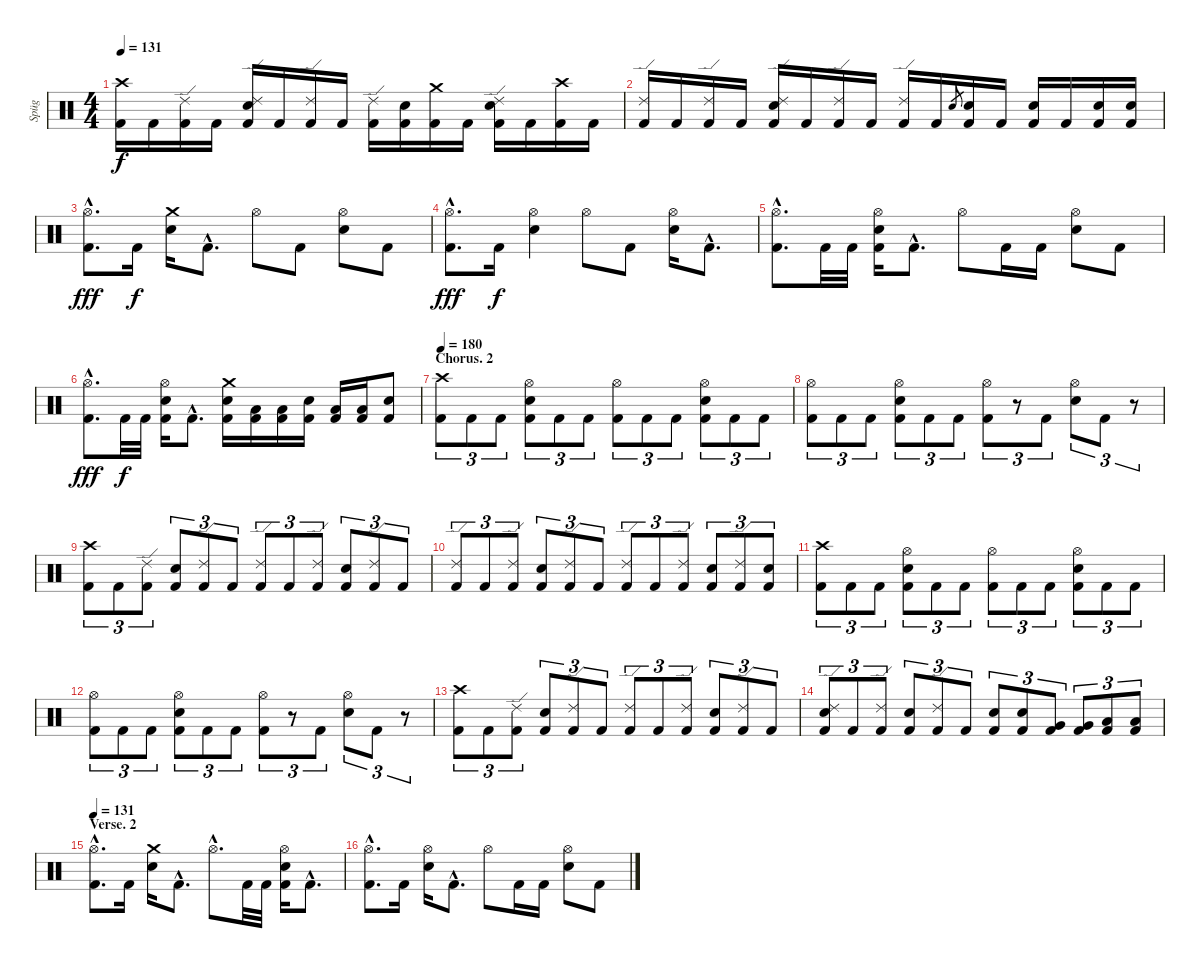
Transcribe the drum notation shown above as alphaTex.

\track ("Spüg" "Spüg") {instrument percussion}
\staff {score}
\articulation defaults
\ts (4 4)
\tempo 131
\clef neutral
\ks c
("Crash high (hit)" "Kick (hit) 2").16{dy f} "Kick (hit) 2".16 ("Ride (edge) 2" "Kick (hit) 2").16 "Kick (hit) 2".16 ("Ride (edge) 2" "Electric Snare (hit)" "Kick (hit) 2").16 "Kick (hit) 2".16 ("Ride (edge) 2" "Kick (hit) 2").16 "Kick (hit) 2".16 ("Ride (edge) 2" "Kick (hit) 2").16 ("Electric Snare (hit)" "Kick (hit) 2").16 ("Crash medium (hit)" "Kick (hit) 2").16 "Kick (hit) 2".16 ("Ride (edge) 2" "Electric Snare (hit)" "Kick (hit) 2").16 "Kick (hit) 2".16 ("Crash high (hit)" "Kick (hit) 2").16 "Kick (hit) 2".16 |
("Ride (edge) 2" "Kick (hit) 2").16 "Kick (hit) 2".16 ("Ride (edge) 2" "Kick (hit) 2").16 "Kick (hit) 2".16 ("Ride (edge) 2" "Electric Snare (hit)" "Kick (hit) 2").16 "Kick (hit) 2".16 ("Ride (edge) 2" "Kick (hit) 2").16 "Kick (hit) 2".16 ("Ride (edge) 2" "Kick (hit) 2").16 "Kick (hit) 2".16 "Electric Snare (hit)".8{gr} ("Electric Snare (hit)" "Kick (hit) 2").16 "Kick (hit) 2".16 ("Electric Snare (hit)" "Kick (hit) 2").16 "Kick (hit) 2".16 ("Electric Snare (hit)" "Kick (hit) 2").16 ("Electric Snare (hit)" "Kick (hit) 2").16 |
("Hi-Hat (open)"{hac} "Kick (hit) 2"{hac}).8{d dy fff} "Kick (hit) 2".16{dy f} ("Crash medium (hit)" "Electric Snare (hit)").16 "Kick (hit) 2"{hac}.8{d} "Hi-Hat (open)".8 "Kick (hit) 2".8 ("Hi-Hat (open)" "Electric Snare (hit)").8 "Kick (hit) 2".8 |
("Hi-Hat (open)"{hac} "Kick (hit) 2"{hac}).8{d dy fff} "Kick (hit) 2".16{dy f} ("Hi-Hat (open)" "Electric Snare (hit)").4 "Hi-Hat (open)".8 "Kick (hit) 2".8 ("Hi-Hat (open)" "Electric Snare (hit)").16 "Kick (hit) 2"{hac}.8{d} |
("Hi-Hat (open)"{hac} "Kick (hit) 2"{hac}).8{d} "Kick (hit) 2".32 "Kick (hit) 2".32 ("Hi-Hat (open)" "Electric Snare (hit)" "Kick (hit) 2").16 "Kick (hit) 2"{hac}.8{d} "Hi-Hat (open)".8 "Kick (hit) 2".16 "Kick (hit) 2".16 ("Hi-Hat (open)" "Electric Snare (hit)").8 "Kick (hit) 2".8 |
("Hi-Hat (open)"{hac} "Kick (hit) 2"{hac}).8{d dy fff} "Kick (hit) 2".32{dy f} "Kick (hit) 2".32 ("Hi-Hat (open)" "Electric Snare (hit)" "Kick (hit) 2").16 "Kick (hit) 2"{hac}.8{d} ("Crash medium (hit)" "Electric Snare (hit)" "Kick (hit) 2").16 ("Low Floor Tom (hit)" "Kick (hit) 2").16 ("Low Floor Tom (hit)" "Kick (hit) 2").16 ("Electric Snare (hit)" "Kick (hit) 2").16 ("Low Floor Tom (hit)" "Kick (hit) 2").16 ("Low Floor Tom (hit)" "Kick (hit) 2").16 ("Electric Snare (hit)" "Kick (hit) 2").8 |
\section ("" "Chorus. 2")
\tempo 180
("Crash high (hit)" "Kick (hit) 2").8{tu (3 2)} "Kick (hit) 2".8{tu (3 2)} "Kick (hit) 2".8{tu (3 2)} ("Hi-Hat (open)" "Electric Snare (hit)" "Kick (hit) 2").8{tu (3 2)} "Kick (hit) 2".8{tu (3 2)} "Kick (hit) 2".8{tu (3 2)} ("Hi-Hat (open)" "Kick (hit) 2").8{tu (3 2)} "Kick (hit) 2".8{tu (3 2)} "Kick (hit) 2".8{tu (3 2)} ("Hi-Hat (open)" "Electric Snare (hit)" "Kick (hit) 2").8{tu (3 2)} "Kick (hit) 2".8{tu (3 2)} "Kick (hit) 2".8{tu (3 2)} |
("Hi-Hat (open)" "Kick (hit) 2").8{tu (3 2)} "Kick (hit) 2".8{tu (3 2)} "Kick (hit) 2".8{tu (3 2)} ("Hi-Hat (open)" "Electric Snare (hit)" "Kick (hit) 2").8{tu (3 2)} "Kick (hit) 2".8{tu (3 2)} "Kick (hit) 2".8{tu (3 2)} ("Hi-Hat (open)" "Kick (hit) 2").8{tu (3 2)} r.8{tu (3 2)} "Kick (hit) 2".8{tu (3 2)} ("Hi-Hat (open)" "Electric Snare (hit)").8{tu (3 2)} "Kick (hit) 2".8{tu (3 2)} r.8{tu (3 2)} |
("Crash high (hit)" "Kick (hit) 2").8{tu (3 2)} "Kick (hit) 2".8{tu (3 2)} ("Ride (edge) 2" "Kick (hit) 2").8{tu (3 2)} ("Electric Snare (hit)" "Kick (hit) 2").8{tu (3 2)} ("Ride (edge) 2" "Kick (hit) 2").8{tu (3 2)} "Kick (hit) 2".8{tu (3 2)} ("Ride (edge) 2" "Kick (hit) 2").8{tu (3 2)} "Kick (hit) 2".8{tu (3 2)} ("Ride (edge) 2" "Kick (hit) 2").8{tu (3 2)} ("Electric Snare (hit)" "Kick (hit) 2").8{tu (3 2)} ("Ride (edge) 2" "Kick (hit) 2").8{tu (3 2)} "Kick (hit) 2".8{tu (3 2)} |
("Ride (edge) 2" "Kick (hit) 2").8{tu (3 2)} "Kick (hit) 2".8{tu (3 2)} ("Ride (edge) 2" "Kick (hit) 2").8{tu (3 2)} ("Electric Snare (hit)" "Kick (hit) 2").8{tu (3 2)} ("Ride (edge) 2" "Kick (hit) 2").8{tu (3 2)} "Kick (hit) 2".8{tu (3 2)} ("Ride (edge) 2" "Kick (hit) 2").8{tu (3 2)} "Kick (hit) 2".8{tu (3 2)} ("Ride (edge) 2" "Kick (hit) 2").8{tu (3 2)} ("Electric Snare (hit)" "Kick (hit) 2").8{tu (3 2)} ("Ride (edge) 2" "Kick (hit) 2").8{tu (3 2)} ("Electric Snare (hit)" "Kick (hit) 2").8{tu (3 2)} |
("Crash high (hit)" "Kick (hit) 2").8{tu (3 2)} "Kick (hit) 2".8{tu (3 2)} "Kick (hit) 2".8{tu (3 2)} ("Hi-Hat (open)" "Electric Snare (hit)" "Kick (hit) 2").8{tu (3 2)} "Kick (hit) 2".8{tu (3 2)} "Kick (hit) 2".8{tu (3 2)} ("Hi-Hat (open)" "Kick (hit) 2").8{tu (3 2)} "Kick (hit) 2".8{tu (3 2)} "Kick (hit) 2".8{tu (3 2)} ("Hi-Hat (open)" "Electric Snare (hit)" "Kick (hit) 2").8{tu (3 2)} "Kick (hit) 2".8{tu (3 2)} "Kick (hit) 2".8{tu (3 2)} |
("Hi-Hat (open)" "Kick (hit) 2").8{tu (3 2)} "Kick (hit) 2".8{tu (3 2)} "Kick (hit) 2".8{tu (3 2)} ("Hi-Hat (open)" "Electric Snare (hit)" "Kick (hit) 2").8{tu (3 2)} "Kick (hit) 2".8{tu (3 2)} "Kick (hit) 2".8{tu (3 2)} ("Hi-Hat (open)" "Kick (hit) 2").8{tu (3 2)} r.8{tu (3 2)} "Kick (hit) 2".8{tu (3 2)} ("Hi-Hat (open)" "Electric Snare (hit)").8{tu (3 2)} "Kick (hit) 2".8{tu (3 2)} r.8{tu (3 2)} |
("Crash high (hit)" "Kick (hit) 2").8{tu (3 2)} "Kick (hit) 2".8{tu (3 2)} ("Ride (edge) 2" "Kick (hit) 2").8{tu (3 2)} ("Electric Snare (hit)" "Kick (hit) 2").8{tu (3 2)} ("Ride (edge) 2" "Kick (hit) 2").8{tu (3 2)} "Kick (hit) 2".8{tu (3 2)} ("Ride (edge) 2" "Kick (hit) 2").8{tu (3 2)} "Kick (hit) 2".8{tu (3 2)} ("Ride (edge) 2" "Kick (hit) 2").8{tu (3 2)} ("Electric Snare (hit)" "Kick (hit) 2").8{tu (3 2)} ("Ride (edge) 2" "Kick (hit) 2").8{tu (3 2)} "Kick (hit) 2".8{tu (3 2)} |
("Ride (edge) 2" "Electric Snare (hit)" "Kick (hit) 2").8{tu (3 2)} "Kick (hit) 2".8{tu (3 2)} ("Ride (edge) 2" "Kick (hit) 2").8{tu (3 2)} ("Electric Snare (hit)" "Kick (hit) 2").8{tu (3 2)} ("Ride (edge) 2" "Kick (hit) 2").8{tu (3 2)} "Kick (hit) 2".8{tu (3 2)} ("Electric Snare (hit)" "Kick (hit) 2").8{tu (3 2)} ("Electric Snare (hit)" "Kick (hit) 2").8{tu (3 2)} ("Very Low Tom (hit)" "Kick (hit) 2").8{tu (3 2)} ("Very Low Tom (hit)" "Kick (hit) 2").8{tu (3 2)} ("Low Floor Tom (hit)" "Kick (hit) 2").8{tu (3 2)} ("Low Floor Tom (hit)" "Kick (hit) 2").8{tu (3 2)} |
\section ("" "Verse. 2")
\tempo 131
("Hi-Hat (open)"{hac} "Kick (hit) 2"{hac}).8{d} "Kick (hit) 2".16 ("Crash medium (hit)" "Electric Snare (hit)").16 "Kick (hit) 2"{hac}.8{d} "Hi-Hat (open)"{hac}.8{d} "Kick (hit) 2".32 "Kick (hit) 2".32 ("Hi-Hat (open)" "Electric Snare (hit)" "Kick (hit) 2").16 "Kick (hit) 2"{hac}.8{d} |
("Hi-Hat (open)"{hac} "Kick (hit) 2"{hac}).8{d} "Kick (hit) 2".16 ("Hi-Hat (open)" "Electric Snare (hit)").16 "Kick (hit) 2"{hac}.8{d} "Hi-Hat (open)".8 "Kick (hit) 2".16 "Kick (hit) 2".16 ("Hi-Hat (open)" "Electric Snare (hit)").8 "Kick (hit) 2".8
